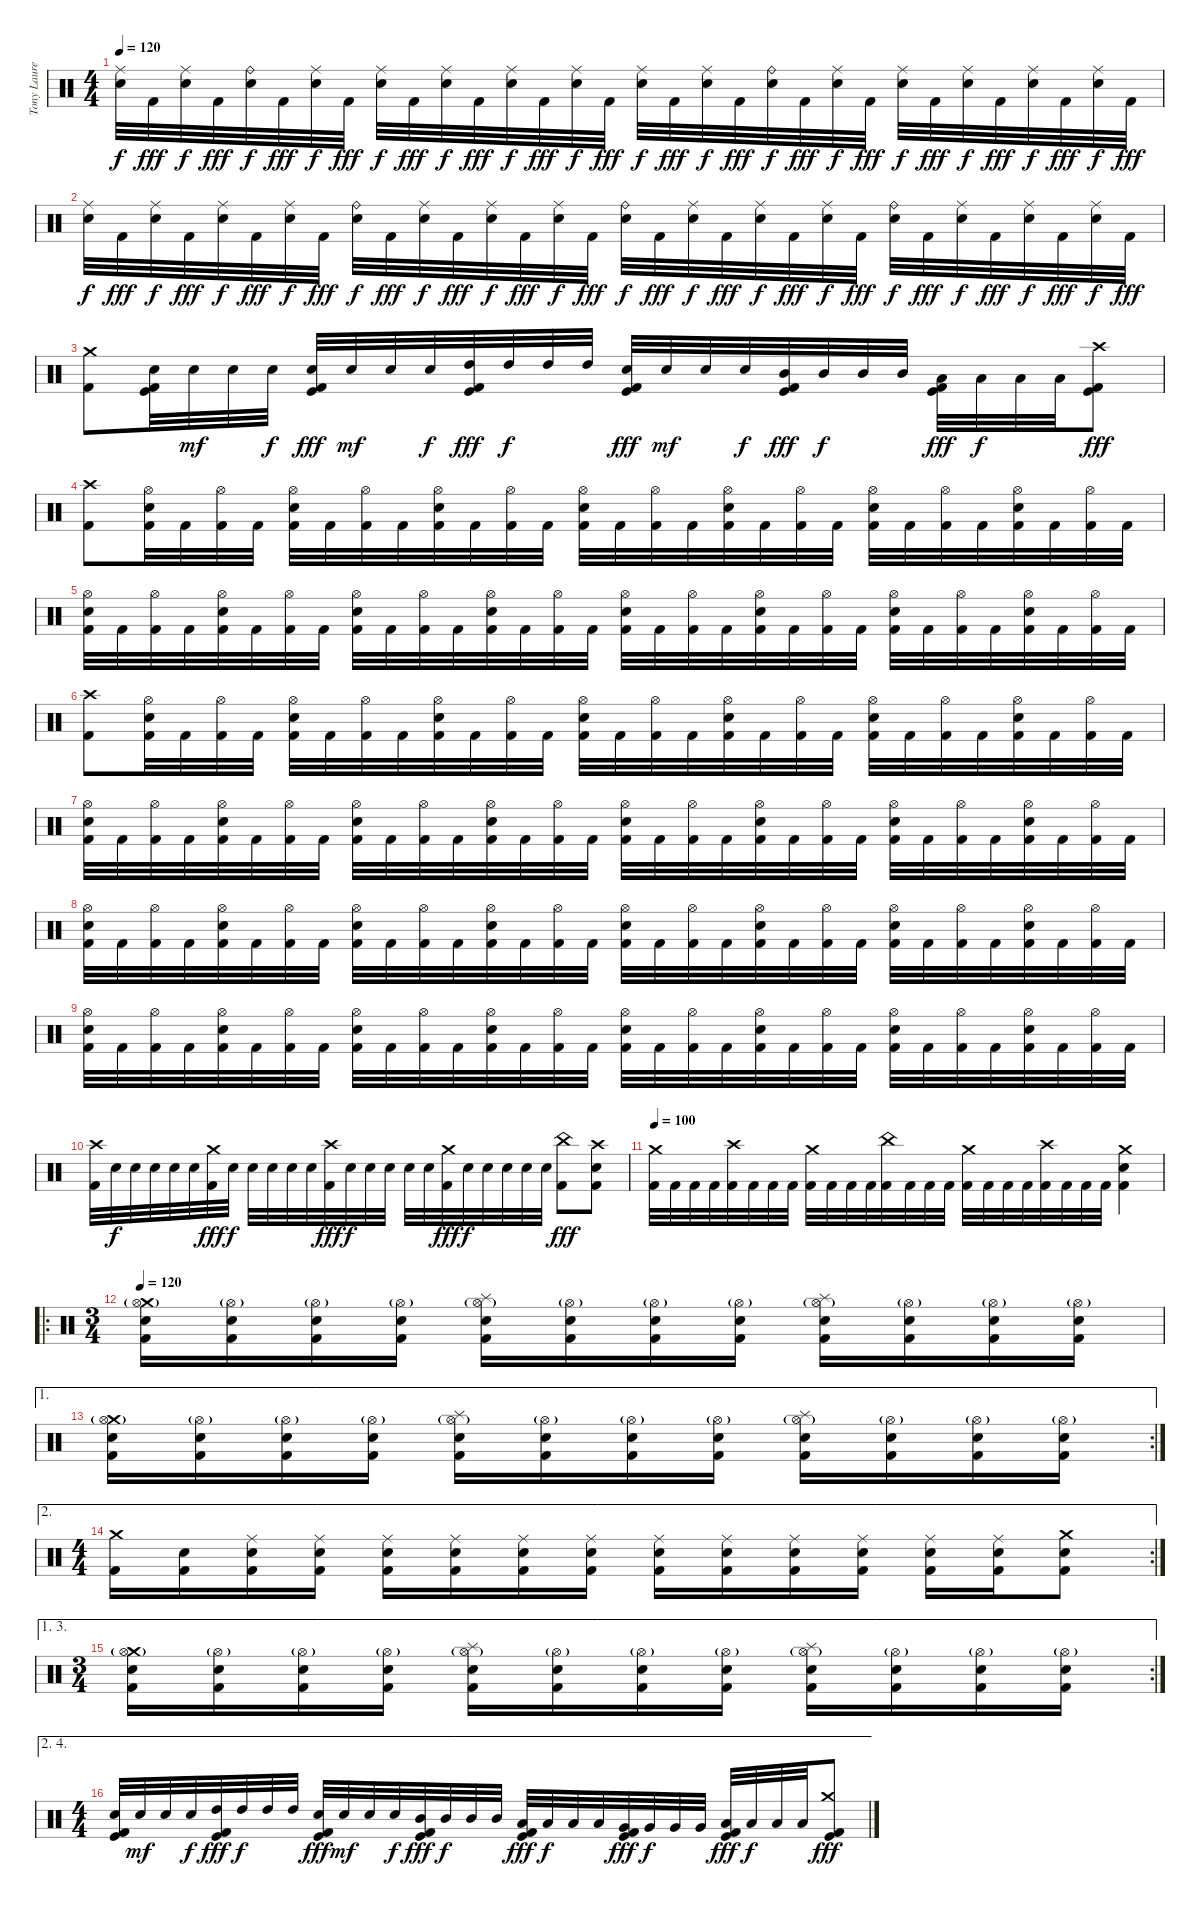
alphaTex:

\track ("Tony Laureano" "Tony Laure") {instrument percussion}
\staff {score}
\articulation defaults
\ts (4 4)
\tempo 120
\clef neutral
\ks c
("Ride (middle)" "Snare (hit) 2").32{dy f} "Kick (hit) 2".32{dy fff} ("Ride (middle)" "Snare (hit) 2").32{dy f} "Kick (hit) 2".32{dy fff} ("Ride (bell)" "Snare (hit) 2").32{dy f} "Kick (hit) 2".32{dy fff} ("Ride (middle)" "Snare (hit) 2").32{dy f} "Kick (hit) 2".32{dy fff} ("Ride (middle)" "Snare (hit) 2").32{dy f} "Kick (hit) 2".32{dy fff} ("Ride (middle)" "Snare (hit) 2").32{dy f} "Kick (hit) 2".32{dy fff} ("Ride (middle)" "Snare (hit) 2").32{dy f} "Kick (hit) 2".32{dy fff} ("Ride (middle)" "Snare (hit) 2").32{dy f} "Kick (hit) 2".32{dy fff} ("Ride (middle)" "Snare (hit) 2").32{dy f} "Kick (hit) 2".32{dy fff} ("Ride (middle)" "Snare (hit) 2").32{dy f} "Kick (hit) 2".32{dy fff} ("Ride (bell)" "Snare (hit) 2").32{dy f} "Kick (hit) 2".32{dy fff} ("Ride (middle)" "Snare (hit) 2").32{dy f} "Kick (hit) 2".32{dy fff} ("Ride (middle)" "Snare (hit) 2").32{dy f} "Kick (hit) 2".32{dy fff} ("Ride (middle)" "Snare (hit) 2").32{dy f} "Kick (hit) 2".32{dy fff} ("Ride (middle)" "Snare (hit) 2").32{dy f} "Kick (hit) 2".32{dy fff} ("Ride (middle)" "Snare (hit) 2").32{dy f} "Kick (hit) 2".32{dy fff} |
("Ride (middle)" "Snare (hit) 2").32{dy f} "Kick (hit) 2".32{dy fff} ("Ride (middle)" "Snare (hit) 2").32{dy f} "Kick (hit) 2".32{dy fff} ("Ride (middle)" "Snare (hit) 2").32{dy f} "Kick (hit) 2".32{dy fff} ("Ride (middle)" "Snare (hit) 2").32{dy f} "Kick (hit) 2".32{dy fff} ("Ride (bell)" "Snare (hit) 2").32{dy f} "Kick (hit) 2".32{dy fff} ("Ride (middle)" "Snare (hit) 2").32{dy f} "Kick (hit) 2".32{dy fff} ("Ride (middle)" "Snare (hit) 2").32{dy f} "Kick (hit) 2".32{dy fff} ("Ride (middle)" "Snare (hit) 2").32{dy f} "Kick (hit) 2".32{dy fff} ("Ride (bell)" "Snare (hit) 2").32{dy f} "Kick (hit) 2".32{dy fff} ("Ride (middle)" "Snare (hit) 2").32{dy f} "Kick (hit) 2".32{dy fff} ("Ride (middle)" "Snare (hit) 2").32{dy f} "Kick (hit) 2".32{dy fff} ("Ride (middle)" "Snare (hit) 2").32{dy f} "Kick (hit) 2".32{dy fff} ("Ride (bell)" "Snare (hit) 2").32{dy f} "Kick (hit) 2".32{dy fff} ("Ride (middle)" "Snare (hit) 2").32{dy f} "Kick (hit) 2".32{dy fff} ("Ride (middle)" "Snare (hit) 2").32{dy f} "Kick (hit) 2".32{dy fff} ("Ride (middle)" "Snare (hit) 2").32{dy f} "Kick (hit) 2".32{dy fff} |
("Crash medium (hit)" "Kick (hit) 2").8 ("Snare (hit) 2" "Kick (hit)" "Kick (hit) 2").32 "Snare (hit) 2".32{dy mf} "Snare (hit) 2".32 "Snare (hit) 2".32{dy f} ("Snare (hit) 2" "Kick (hit)" "Kick (hit) 2").32{dy fff} "Snare (hit) 2".32{dy mf} "Snare (hit) 2".32 "Snare (hit) 2".32{dy f} ("High Tom (hit)" "Kick (hit)" "Kick (hit) 2").32{dy fff} "High Tom (hit)".32{dy f} "High Tom (hit)".32 "High Tom (hit)".32 ("Snare (hit) 2" "Kick (hit)" "Kick (hit) 2").32{dy fff} "Snare (hit) 2".32{dy mf} "Snare (hit) 2".32 "Snare (hit) 2".32{dy f} ("Mid Tom (hit)" "Kick (hit)" "Kick (hit) 2").32{dy fff} "Mid Tom (hit)".32{dy f} "Mid Tom (hit)".32 "Mid Tom (hit)".32 ("Low Tom (hit)" "Kick (hit)" "Kick (hit) 2").32{dy fff} "Low Tom (hit)".32{dy f} "Low Tom (hit)".32 "Low Tom (hit)".32 ("Crash high (hit)" "Kick (hit)" "Kick (hit) 2").8{dy fff} |
("Crash high (hit)" "Kick (hit) 2").8 ("Hi-Hat (open)" "Snare (hit) 2" "Kick (hit) 2").32 "Kick (hit) 2".32 ("Hi-Hat (open)" "Kick (hit) 2").32 "Kick (hit) 2".32 ("Hi-Hat (open)" "Snare (hit) 2" "Kick (hit) 2").32 "Kick (hit) 2".32 ("Hi-Hat (open)" "Kick (hit) 2").32 "Kick (hit) 2".32 ("Hi-Hat (open)" "Snare (hit) 2" "Kick (hit) 2").32 "Kick (hit) 2".32 ("Hi-Hat (open)" "Kick (hit) 2").32 "Kick (hit) 2".32 ("Hi-Hat (open)" "Snare (hit) 2" "Kick (hit) 2").32 "Kick (hit) 2".32 ("Hi-Hat (open)" "Kick (hit) 2").32 "Kick (hit) 2".32 ("Hi-Hat (open)" "Snare (hit) 2" "Kick (hit) 2").32 "Kick (hit) 2".32 ("Hi-Hat (open)" "Kick (hit) 2").32 "Kick (hit) 2".32 ("Hi-Hat (open)" "Snare (hit) 2" "Kick (hit) 2").32 "Kick (hit) 2".32 ("Hi-Hat (open)" "Kick (hit) 2").32 "Kick (hit) 2".32 ("Hi-Hat (open)" "Snare (hit) 2" "Kick (hit) 2").32 "Kick (hit) 2".32 ("Hi-Hat (open)" "Kick (hit) 2").32 "Kick (hit) 2".32 |
("Hi-Hat (open)" "Snare (hit) 2" "Kick (hit) 2").32 "Kick (hit) 2".32 ("Hi-Hat (open)" "Kick (hit) 2").32 "Kick (hit) 2".32 ("Hi-Hat (open)" "Snare (hit) 2" "Kick (hit) 2").32 "Kick (hit) 2".32 ("Hi-Hat (open)" "Kick (hit) 2").32 "Kick (hit) 2".32 ("Hi-Hat (open)" "Snare (hit) 2" "Kick (hit) 2").32 "Kick (hit) 2".32 ("Hi-Hat (open)" "Kick (hit) 2").32 "Kick (hit) 2".32 ("Hi-Hat (open)" "Snare (hit) 2" "Kick (hit) 2").32 "Kick (hit) 2".32 ("Hi-Hat (open)" "Kick (hit) 2").32 "Kick (hit) 2".32 ("Hi-Hat (open)" "Snare (hit) 2" "Kick (hit) 2").32 "Kick (hit) 2".32 ("Hi-Hat (open)" "Kick (hit) 2").32 "Kick (hit) 2".32 ("Hi-Hat (open)" "Snare (hit) 2" "Kick (hit) 2").32 "Kick (hit) 2".32 ("Hi-Hat (open)" "Kick (hit) 2").32 "Kick (hit) 2".32 ("Hi-Hat (open)" "Snare (hit) 2" "Kick (hit) 2").32 "Kick (hit) 2".32 ("Hi-Hat (open)" "Kick (hit) 2").32 "Kick (hit) 2".32 ("Hi-Hat (open)" "Snare (hit) 2" "Kick (hit) 2").32 "Kick (hit) 2".32 ("Hi-Hat (open)" "Kick (hit) 2").32 "Kick (hit) 2".32 |
("Crash high (hit)" "Kick (hit) 2").8 ("Hi-Hat (open)" "Snare (hit) 2" "Kick (hit) 2").32 "Kick (hit) 2".32 ("Hi-Hat (open)" "Kick (hit) 2").32 "Kick (hit) 2".32 ("Hi-Hat (open)" "Snare (hit) 2" "Kick (hit) 2").32 "Kick (hit) 2".32 ("Hi-Hat (open)" "Kick (hit) 2").32 "Kick (hit) 2".32 ("Hi-Hat (open)" "Snare (hit) 2" "Kick (hit) 2").32 "Kick (hit) 2".32 ("Hi-Hat (open)" "Kick (hit) 2").32 "Kick (hit) 2".32 ("Hi-Hat (open)" "Snare (hit) 2" "Kick (hit) 2").32 "Kick (hit) 2".32 ("Hi-Hat (open)" "Kick (hit) 2").32 "Kick (hit) 2".32 ("Hi-Hat (open)" "Snare (hit) 2" "Kick (hit) 2").32 "Kick (hit) 2".32 ("Hi-Hat (open)" "Kick (hit) 2").32 "Kick (hit) 2".32 ("Hi-Hat (open)" "Snare (hit) 2" "Kick (hit) 2").32 "Kick (hit) 2".32 ("Hi-Hat (open)" "Kick (hit) 2").32 "Kick (hit) 2".32 ("Hi-Hat (open)" "Snare (hit) 2" "Kick (hit) 2").32 "Kick (hit) 2".32 ("Hi-Hat (open)" "Kick (hit) 2").32 "Kick (hit) 2".32 |
("Hi-Hat (open)" "Snare (hit) 2" "Kick (hit) 2").32 "Kick (hit) 2".32 ("Hi-Hat (open)" "Kick (hit) 2").32 "Kick (hit) 2".32 ("Hi-Hat (open)" "Snare (hit) 2" "Kick (hit) 2").32 "Kick (hit) 2".32 ("Hi-Hat (open)" "Kick (hit) 2").32 "Kick (hit) 2".32 ("Hi-Hat (open)" "Snare (hit) 2" "Kick (hit) 2").32 "Kick (hit) 2".32 ("Hi-Hat (open)" "Kick (hit) 2").32 "Kick (hit) 2".32 ("Hi-Hat (open)" "Snare (hit) 2" "Kick (hit) 2").32 "Kick (hit) 2".32 ("Hi-Hat (open)" "Kick (hit) 2").32 "Kick (hit) 2".32 ("Hi-Hat (open)" "Snare (hit) 2" "Kick (hit) 2").32 "Kick (hit) 2".32 ("Hi-Hat (open)" "Kick (hit) 2").32 "Kick (hit) 2".32 ("Hi-Hat (open)" "Snare (hit) 2" "Kick (hit) 2").32 "Kick (hit) 2".32 ("Hi-Hat (open)" "Kick (hit) 2").32 "Kick (hit) 2".32 ("Hi-Hat (open)" "Snare (hit) 2" "Kick (hit) 2").32 "Kick (hit) 2".32 ("Hi-Hat (open)" "Kick (hit) 2").32 "Kick (hit) 2".32 ("Hi-Hat (open)" "Snare (hit) 2" "Kick (hit) 2").32 "Kick (hit) 2".32 ("Hi-Hat (open)" "Kick (hit) 2").32 "Kick (hit) 2".32 |
("Hi-Hat (open)" "Snare (hit) 2" "Kick (hit) 2").32 "Kick (hit) 2".32 ("Hi-Hat (open)" "Kick (hit) 2").32 "Kick (hit) 2".32 ("Hi-Hat (open)" "Snare (hit) 2" "Kick (hit) 2").32 "Kick (hit) 2".32 ("Hi-Hat (open)" "Kick (hit) 2").32 "Kick (hit) 2".32 ("Hi-Hat (open)" "Snare (hit) 2" "Kick (hit) 2").32 "Kick (hit) 2".32 ("Hi-Hat (open)" "Kick (hit) 2").32 "Kick (hit) 2".32 ("Hi-Hat (open)" "Snare (hit) 2" "Kick (hit) 2").32 "Kick (hit) 2".32 ("Hi-Hat (open)" "Kick (hit) 2").32 "Kick (hit) 2".32 ("Hi-Hat (open)" "Snare (hit) 2" "Kick (hit) 2").32 "Kick (hit) 2".32 ("Hi-Hat (open)" "Kick (hit) 2").32 "Kick (hit) 2".32 ("Hi-Hat (open)" "Snare (hit) 2" "Kick (hit) 2").32 "Kick (hit) 2".32 ("Hi-Hat (open)" "Kick (hit) 2").32 "Kick (hit) 2".32 ("Hi-Hat (open)" "Snare (hit) 2" "Kick (hit) 2").32 "Kick (hit) 2".32 ("Hi-Hat (open)" "Kick (hit) 2").32 "Kick (hit) 2".32 ("Hi-Hat (open)" "Snare (hit) 2" "Kick (hit) 2").32 "Kick (hit) 2".32 ("Hi-Hat (open)" "Kick (hit) 2").32 "Kick (hit) 2".32 |
("Hi-Hat (open)" "Snare (hit) 2" "Kick (hit) 2").32 "Kick (hit) 2".32 ("Hi-Hat (open)" "Kick (hit) 2").32 "Kick (hit) 2".32 ("Hi-Hat (open)" "Snare (hit) 2" "Kick (hit) 2").32 "Kick (hit) 2".32 ("Hi-Hat (open)" "Kick (hit) 2").32 "Kick (hit) 2".32 ("Hi-Hat (open)" "Snare (hit) 2" "Kick (hit) 2").32 "Kick (hit) 2".32 ("Hi-Hat (open)" "Kick (hit) 2").32 "Kick (hit) 2".32 ("Hi-Hat (open)" "Snare (hit) 2" "Kick (hit) 2").32 "Kick (hit) 2".32 ("Hi-Hat (open)" "Kick (hit) 2").32 "Kick (hit) 2".32 ("Hi-Hat (open)" "Snare (hit) 2" "Kick (hit) 2").32 "Kick (hit) 2".32 ("Hi-Hat (open)" "Kick (hit) 2").32 "Kick (hit) 2".32 ("Hi-Hat (open)" "Snare (hit) 2" "Kick (hit) 2").32 "Kick (hit) 2".32 ("Hi-Hat (open)" "Kick (hit) 2").32 "Kick (hit) 2".32 ("Hi-Hat (open)" "Snare (hit) 2" "Kick (hit) 2").32 "Kick (hit) 2".32 ("Hi-Hat (open)" "Kick (hit) 2").32 "Kick (hit) 2".32 ("Hi-Hat (open)" "Snare (hit) 2" "Kick (hit) 2").32 "Kick (hit) 2".32 ("Hi-Hat (open)" "Kick (hit) 2").32 "Kick (hit) 2".32 |
("Crash high (hit)" "Kick (hit) 2").32 "Snare (hit) 2".32{dy f} "Snare (hit) 2".32 "Snare (hit) 2".32 "Snare (hit) 2".32 "Snare (hit) 2".32 ("Crash medium (hit)" "Kick (hit) 2").32{dy fff} "Snare (hit) 2".32{dy f} "Snare (hit) 2".32 "Snare (hit) 2".32 "Snare (hit) 2".32 "Snare (hit) 2".32 ("Crash high (hit)" "Kick (hit) 2").32{dy fff} "Snare (hit) 2".32{dy f} "Snare (hit) 2".32 "Snare (hit) 2".32 "Snare (hit) 2".32 "Snare (hit) 2".32 ("Crash medium (hit)" "Kick (hit) 2").32{dy fff} "Snare (hit) 2".32{dy f} "Snare (hit) 2".32 "Snare (hit) 2".32 "Snare (hit) 2".32 "Snare (hit) 2".32 ("China (hit)" "Kick (hit) 2").8{dy fff} ("Crash high (hit)" "Snare (hit) 2" "Kick (hit) 2").8 |
\tempo 100
("Crash medium (hit)" "Kick (hit) 2").32 "Kick (hit) 2".32 "Kick (hit) 2".32 "Kick (hit) 2".32 ("Crash high (hit)" "Kick (hit) 2").32 "Kick (hit) 2".32 "Kick (hit) 2".32 "Kick (hit) 2".32 ("Crash medium (hit)" "Kick (hit) 2").32 "Kick (hit) 2".32 "Kick (hit) 2".32 "Kick (hit) 2".32 ("China (hit)" "Kick (hit) 2").32 "Kick (hit) 2".32 "Kick (hit) 2".32 "Kick (hit) 2".32 ("Crash medium (hit)" "Kick (hit) 2").32 "Kick (hit) 2".32 "Kick (hit) 2".32 "Kick (hit) 2".32 ("Crash high (hit)" "Kick (hit) 2").32 "Kick (hit) 2".32 "Kick (hit) 2".32 "Kick (hit) 2".32 ("Crash medium (hit)" "Snare (hit) 2" "Kick (hit) 2").4 |
\ro
\ts (3 4)
\tempo 120
("Crash medium (hit)" "Hi-Hat (open)"{g} "Snare (hit) 2" "Kick (hit) 2").16 ("Hi-Hat (open)"{g} "Snare (hit) 2" "Kick (hit) 2").16 ("Hi-Hat (open)"{g} "Snare (hit) 2" "Kick (hit) 2").16 ("Hi-Hat (open)"{g} "Snare (hit) 2" "Kick (hit) 2").16 ("Splash (hit)" "Hi-Hat (open)"{g} "Snare (hit) 2" "Kick (hit) 2").16 ("Hi-Hat (open)"{g} "Snare (hit) 2" "Kick (hit) 2").16 ("Hi-Hat (open)"{g} "Snare (hit) 2" "Kick (hit) 2").16 ("Hi-Hat (open)"{g} "Snare (hit) 2" "Kick (hit) 2").16 ("Splash (hit)" "Hi-Hat (open)"{g} "Snare (hit) 2" "Kick (hit) 2").16 ("Hi-Hat (open)"{g} "Snare (hit) 2" "Kick (hit) 2").16 ("Hi-Hat (open)"{g} "Snare (hit) 2" "Kick (hit) 2").16 ("Hi-Hat (open)"{g} "Snare (hit) 2" "Kick (hit) 2").16 |
\ae 1
\rc 2
("Crash medium (hit)" "Hi-Hat (open)"{g} "Snare (hit) 2" "Kick (hit) 2").16 ("Hi-Hat (open)"{g} "Snare (hit) 2" "Kick (hit) 2").16 ("Hi-Hat (open)"{g} "Snare (hit) 2" "Kick (hit) 2").16 ("Hi-Hat (open)"{g} "Snare (hit) 2" "Kick (hit) 2").16 ("Splash (hit)" "Hi-Hat (open)"{g} "Snare (hit) 2" "Kick (hit) 2").16 ("Hi-Hat (open)"{g} "Snare (hit) 2" "Kick (hit) 2").16 ("Hi-Hat (open)"{g} "Snare (hit) 2" "Kick (hit) 2").16 ("Hi-Hat (open)"{g} "Snare (hit) 2" "Kick (hit) 2").16 ("Splash (hit)" "Hi-Hat (open)"{g} "Snare (hit) 2" "Kick (hit) 2").16 ("Hi-Hat (open)"{g} "Snare (hit) 2" "Kick (hit) 2").16 ("Hi-Hat (open)"{g} "Snare (hit) 2" "Kick (hit) 2").16 ("Hi-Hat (open)"{g} "Snare (hit) 2" "Kick (hit) 2").16 |
\ae 2
\rc 2
\ts (4 4)
("Crash medium (hit)" "Kick (hit) 2").16 ("Snare (hit) 2" "Kick (hit) 2").16 ("Ride (middle)" "Snare (hit) 2" "Kick (hit) 2").16 ("Ride (middle)" "Snare (hit) 2" "Kick (hit) 2").16 ("Ride (middle)" "Snare (hit) 2" "Kick (hit) 2").16 ("Ride (middle)" "Snare (hit) 2" "Kick (hit) 2").16 ("Ride (middle)" "Snare (hit) 2" "Kick (hit) 2").16 ("Ride (middle)" "Snare (hit) 2" "Kick (hit) 2").16 ("Ride (middle)" "Snare (hit) 2" "Kick (hit) 2").16 ("Ride (middle)" "Snare (hit) 2" "Kick (hit) 2").16 ("Ride (middle)" "Snare (hit) 2" "Kick (hit) 2").16 ("Ride (middle)" "Snare (hit) 2" "Kick (hit) 2").16 ("Ride (middle)" "Snare (hit) 2" "Kick (hit) 2").16 ("Ride (middle)" "Snare (hit) 2" "Kick (hit) 2").16 ("Crash medium (hit)" "Snare (hit) 2" "Kick (hit) 2").8 |
\ae (1 3)
\rc 2
\ts (3 4)
("Crash medium (hit)" "Hi-Hat (open)"{g} "Snare (hit) 2" "Kick (hit) 2").16 ("Hi-Hat (open)"{g} "Snare (hit) 2" "Kick (hit) 2").16 ("Hi-Hat (open)"{g} "Snare (hit) 2" "Kick (hit) 2").16 ("Hi-Hat (open)"{g} "Snare (hit) 2" "Kick (hit) 2").16 ("Splash (hit)" "Hi-Hat (open)"{g} "Snare (hit) 2" "Kick (hit) 2").16 ("Hi-Hat (open)"{g} "Snare (hit) 2" "Kick (hit) 2").16 ("Hi-Hat (open)"{g} "Snare (hit) 2" "Kick (hit) 2").16 ("Hi-Hat (open)"{g} "Snare (hit) 2" "Kick (hit) 2").16 ("Splash (hit)" "Hi-Hat (open)"{g} "Snare (hit) 2" "Kick (hit) 2").16 ("Hi-Hat (open)"{g} "Snare (hit) 2" "Kick (hit) 2").16 ("Hi-Hat (open)"{g} "Snare (hit) 2" "Kick (hit) 2").16 ("Hi-Hat (open)"{g} "Snare (hit) 2" "Kick (hit) 2").16 |
\ae (2 4)
\ts (4 4)
("Snare (hit) 2" "Kick (hit)" "Kick (hit) 2").32 "Snare (hit) 2".32{dy mf} "Snare (hit) 2".32 "Snare (hit) 2".32{dy f} ("High Tom (hit)" "Kick (hit)" "Kick (hit) 2").32{dy fff} "High Tom (hit)".32{dy f} "High Tom (hit)".32 "High Tom (hit)".32 ("Snare (hit) 2" "Kick (hit)" "Kick (hit) 2").32{dy fff} "Snare (hit) 2".32{dy mf} "Snare (hit) 2".32 "Snare (hit) 2".32{dy f} ("Mid Tom (hit)" "Kick (hit)" "Kick (hit) 2").32{dy fff} "Mid Tom (hit)".32{dy f} "Mid Tom (hit)".32 "Mid Tom (hit)".32 ("Low Tom (hit)" "Kick (hit)" "Kick (hit) 2").32{dy fff} "Low Tom (hit)".32{dy f} "Low Tom (hit)".32 "Low Tom (hit)".32 ("Very Low Tom (hit)" "Kick (hit)" "Kick (hit) 2").32{dy fff} "Very Low Tom (hit)".32{dy f} "Very Low Tom (hit)".32 "Very Low Tom (hit)".32 ("Low Floor Tom (hit)" "Kick (hit)" "Kick (hit) 2").32{dy fff} "Low Floor Tom (hit)".32{dy f} "Low Floor Tom (hit)".32 "Low Floor Tom (hit)".32 ("Crash medium (hit)" "Kick (hit)" "Kick (hit) 2").8{dy fff}
